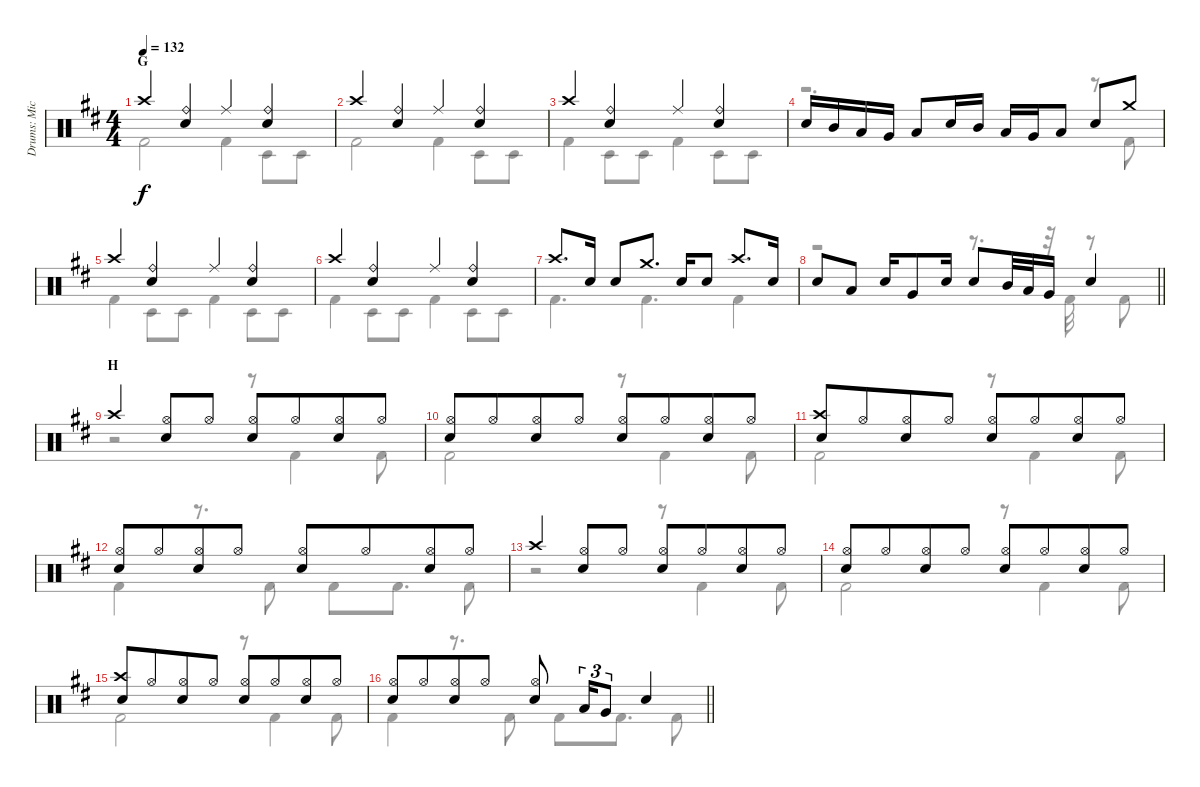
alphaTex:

\track ("Drums: Mick" "Drums: Mic") {instrument percussion}
\staff {score}
\articulation defaults
\voice
\ts (4 4)
\section ("" "G")
\tempo 132
\clef neutral
\ks d "Crash high (hit)".4{dy f}
("Ride (bell)" "Snare (hit) 2").4 "Ride (middle)".4 ("Ride (bell)" "Snare (hit) 2").4 |
"Crash high (hit)".4 ("Ride (bell)" "Snare (hit) 2").4 "Ride (middle)".4 ("Ride (bell)" "Snare (hit) 2").4 |
"Crash high (hit)".4 ("Ride (bell)" "Snare (hit) 2").4 "Ride (middle)".4 ("Ride (bell)" "Snare (hit) 2").4 |
"Electric Snare (hit)".16 "Mid Tom (hit)".16 "Low Tom (hit)".16 "Very Low Tom (hit)".16 "Low Floor Tom (hit)".8 "Electric Snare (hit)".16 "Mid Tom (hit)".16 "Low Tom (hit)".16 "Very Low Tom (hit)".16 "Low Floor Tom (hit)".8 "Snare (hit) 2".8 "Crash medium (hit)".8 |
"Crash high (hit)".4 ("Ride (bell)" "Snare (hit) 2").4 "Ride (middle)".4 ("Ride (bell)" "Snare (hit) 2").4 |
"Crash high (hit)".4 ("Ride (bell)" "Snare (hit) 2").4 "Ride (middle)".4 ("Ride (bell)" "Snare (hit) 2").4 |
"Crash high (hit)".8{d} "Electric Snare (hit)".16 "Snare (hit) 2".8 "Crash medium (hit)".8{d} "Electric Snare (hit)".16 "Snare (hit) 2".8 "Crash high (hit)".8{d} "Electric Snare (hit)".16 |
\barLineRight lightlight "Snare (hit) 2".8 "Low Tom (hit)".8 "Electric Snare (hit)".16 "Very Low Tom (hit)".8 "Electric Snare (hit)".16 "Snare (hit) 2".8 "Mid Tom (hit)".32 "Low Tom (hit)".32 "Very Low Tom (hit)".16 "Snare (hit) 2".4
|
\section ("" "H")
"Crash high (hit)".4 ("Hi-Hat (open)" "Snare (hit) 2").8 "Hi-Hat (open)".8 ("Hi-Hat (open)" "Snare (hit) 2").8 "Hi-Hat (open)".8{beam merge} ("Hi-Hat (open)" "Snare (hit) 2").8 "Hi-Hat (open)".8 |
("Hi-Hat (open)" "Snare (hit) 2").8 "Hi-Hat (open)".8{beam merge} ("Hi-Hat (open)" "Snare (hit) 2").8 "Hi-Hat (open)".8 ("Hi-Hat (open)" "Snare (hit) 2").8 "Hi-Hat (open)".8{beam merge} ("Hi-Hat (open)" "Snare (hit) 2").8 "Hi-Hat (open)".8 |
("Crash high (hit)" "Snare (hit) 2").8 "Hi-Hat (open)".8{beam merge} ("Hi-Hat (open)" "Snare (hit) 2").8 "Hi-Hat (open)".8 ("Hi-Hat (open)" "Snare (hit) 2").8 "Hi-Hat (open)".8{beam merge} ("Hi-Hat (open)" "Snare (hit) 2").8 "Hi-Hat (open)".8 |
("Hi-Hat (open)" "Snare (hit) 2").8 "Hi-Hat (open)".8{beam merge} ("Hi-Hat (open)" "Snare (hit) 2").8 "Hi-Hat (open)".8 ("Hi-Hat (open)" "Snare (hit) 2").8 "Hi-Hat (open)".8{beam merge} ("Hi-Hat (open)" "Snare (hit) 2").8 "Hi-Hat (open)".8 |
"Crash high (hit)".4 ("Hi-Hat (open)" "Snare (hit) 2").8 "Hi-Hat (open)".8 ("Hi-Hat (open)" "Snare (hit) 2").8 "Hi-Hat (open)".8{beam merge} ("Hi-Hat (open)" "Snare (hit) 2").8 "Hi-Hat (open)".8 |
("Hi-Hat (open)" "Snare (hit) 2").8 "Hi-Hat (open)".8{beam merge} ("Hi-Hat (open)" "Snare (hit) 2").8 "Hi-Hat (open)".8 ("Hi-Hat (open)" "Snare (hit) 2").8 "Hi-Hat (open)".8{beam merge} ("Hi-Hat (open)" "Snare (hit) 2").8 "Hi-Hat (open)".8 |
("Crash high (hit)" "Snare (hit) 2").8 "Hi-Hat (open)".8{beam merge} ("Hi-Hat (open)" "Snare (hit) 2").8 "Hi-Hat (open)".8 ("Hi-Hat (open)" "Snare (hit) 2").8 "Hi-Hat (open)".8{beam merge} ("Hi-Hat (open)" "Snare (hit) 2").8 "Hi-Hat (open)".8 |
\barLineRight lightlight
("Hi-Hat (open)" "Snare (hit) 2").8 "Hi-Hat (open)".8{beam merge} ("Hi-Hat (open)" "Snare (hit) 2").8 "Hi-Hat (open)".8 ("Hi-Hat (open)" "Snare (hit) 2").8 "Low Tom (hit)".16{tu (3 2) beam merge} "Very Low Tom (hit)".8{tu (3 2)} "Snare (hit) 2".4
\voice
\clef neutral
\ottava regular
\simile none
\ks d "Kick (hit) 2".2{dy f} "Kick (hit) 2".4 "Timbale low (hit)".8 "Timbale low (hit)".8
|
"Kick (hit) 2".2 "Kick (hit) 2".4 "Timbale low (hit)".8 "Timbale low (hit)".8 |
"Kick (hit) 2".4 "Timbale low (hit)".8 "Timbale low (hit)".8 "Kick (hit) 2".4 "Timbale low (hit)".8 "Timbale low (hit)".8 |
r.2{d} r.8 "Kick (hit) 2".8 |
"Kick (hit) 2".4 "Timbale low (hit)".8 "Timbale low (hit)".8 "Kick (hit) 2".4 "Timbale low (hit)".8 "Timbale low (hit)".8 |
"Kick (hit) 2".4 "Timbale low (hit)".8 "Timbale low (hit)".8 "Kick (hit) 2".4 "Timbale low (hit)".8 "Timbale low (hit)".8 |
"Kick (hit) 2".4{d} "Kick (hit) 2".4{d} "Kick (hit) 2".4 |
\barLineRight lightlight
r.2 r.8{d} r.32 "Kick (hit) 2".32 r.8 "Kick (hit) 2".8 |
r.2 r.8 "Kick (hit) 2".4 "Kick (hit) 2".8 |
"Kick (hit) 2".2 r.8 "Kick (hit) 2".4 "Kick (hit) 2".8 |
"Kick (hit) 2".2 r.8 "Kick (hit) 2".4 "Kick (hit) 2".8 |
"Kick (hit) 2".4 r.8{d} "Kick (hit) 2".8 "Kick (hit) 2".8 "Kick (hit) 2".8{d} "Kick (hit) 2".8 |
r.2 r.8 "Kick (hit) 2".4 "Kick (hit) 2".8 |
"Kick (hit) 2".2 r.8 "Kick (hit) 2".4 "Kick (hit) 2".8 |
"Kick (hit) 2".2 r.8 "Kick (hit) 2".4 "Kick (hit) 2".8 |
\barLineRight lightlight "Kick (hit) 2".4
r.8{d} "Kick (hit) 2".8 "Kick (hit) 2".8 "Kick (hit) 2".8{d} "Kick (hit) 2".8
